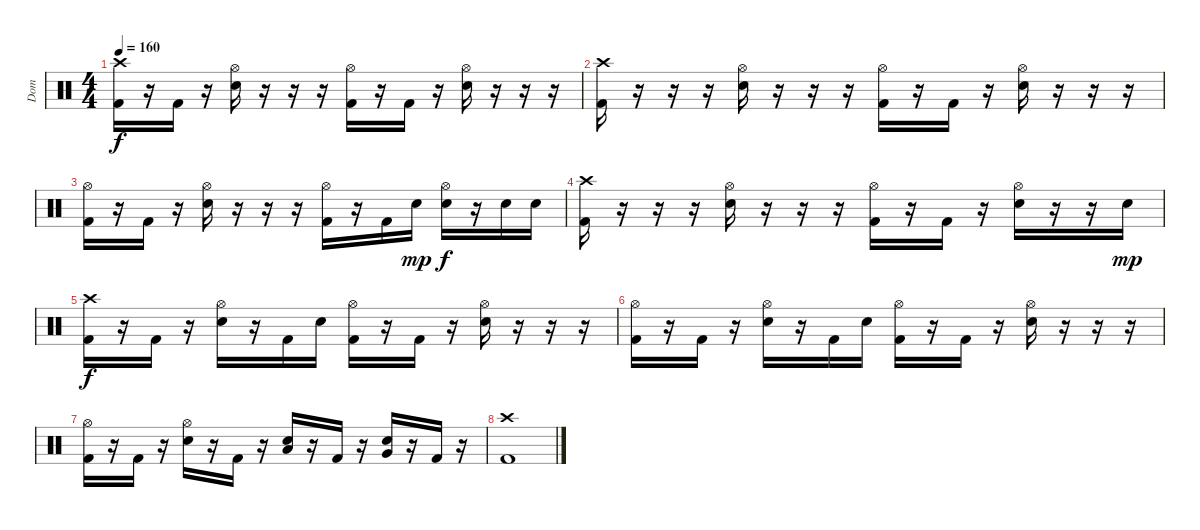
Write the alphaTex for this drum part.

\track ("Dom" "Dom") {instrument percussion}
\staff {score}
\articulation defaults
\ts (4 4)
\tempo 160
\clef neutral
\ks c
("Crash high (hit)" "Kick (hit) 2").16{dy f} r.16 "Kick (hit) 2".16 r.16 ("Hi-Hat (open)" "Electric Snare (hit)").16 r.16 r.16 r.16 ("Hi-Hat (open)" "Kick (hit) 2").16 r.16 "Kick (hit) 2".16 r.16 ("Hi-Hat (open)" "Electric Snare (hit)").16 r.16 r.16 r.16 |
("Crash high (hit)" "Kick (hit) 2").16 r.16 r.16 r.16 ("Hi-Hat (open)" "Electric Snare (hit)").16 r.16 r.16 r.16 ("Hi-Hat (open)" "Kick (hit) 2").16 r.16 "Kick (hit) 2".16 r.16 ("Hi-Hat (open)" "Electric Snare (hit)").16 r.16 r.16 r.16 |
("Hi-Hat (open)" "Kick (hit) 2").16 r.16 "Kick (hit) 2".16 r.16 ("Hi-Hat (open)" "Electric Snare (hit)").16 r.16 r.16 r.16 ("Hi-Hat (open)" "Kick (hit) 2").16 r.16 "Kick (hit) 2".16 "Electric Snare (hit)".16{dy mp} ("Hi-Hat (open)" "Electric Snare (hit)").16{dy f} r.16 "Electric Snare (hit)".16 "Electric Snare (hit)".16 |
("Crash high (hit)" "Kick (hit) 2").16 r.16 r.16 r.16 ("Hi-Hat (open)" "Electric Snare (hit)").16 r.16 r.16 r.16 ("Hi-Hat (open)" "Kick (hit) 2").16 r.16 "Kick (hit) 2".16 r.16 ("Hi-Hat (open)" "Electric Snare (hit)").16 r.16 r.16 "Electric Snare (hit)".16{dy mp} |
("Crash high (hit)" "Kick (hit) 2").16{dy f} r.16 "Kick (hit) 2".16 r.16 ("Hi-Hat (open)" "Electric Snare (hit)").16 r.16 "Kick (hit) 2".16 "Electric Snare (hit)".16 ("Hi-Hat (open)" "Kick (hit) 2").16 r.16 "Kick (hit) 2".16 r.16 ("Hi-Hat (open)" "Electric Snare (hit)").16 r.16 r.16 r.16 |
("Hi-Hat (open)" "Kick (hit) 2").16 r.16 "Kick (hit) 2".16 r.16 ("Hi-Hat (open)" "Electric Snare (hit)").16 r.16 "Kick (hit) 2".16 "Electric Snare (hit)".16 ("Hi-Hat (open)" "Kick (hit) 2").16 r.16 "Kick (hit) 2".16 r.16 ("Hi-Hat (open)" "Electric Snare (hit)").16 r.16 r.16 r.16 |
("Hi-Hat (open)" "Kick (hit) 2").16 r.16 "Kick (hit) 2".16 r.16 ("Hi-Hat (open)" "Electric Snare (hit)").16 r.16 "Kick (hit) 2".16 r.16 ("Low Tom (hit)" "Electric Snare (hit)").16 r.16 "Kick (hit) 2".16 r.16 ("Very Low Tom (hit)" "Electric Snare (hit)").16 r.16 "Kick (hit) 2".16 r.16 |
("Crash high (hit)" "Kick (hit) 2").1
